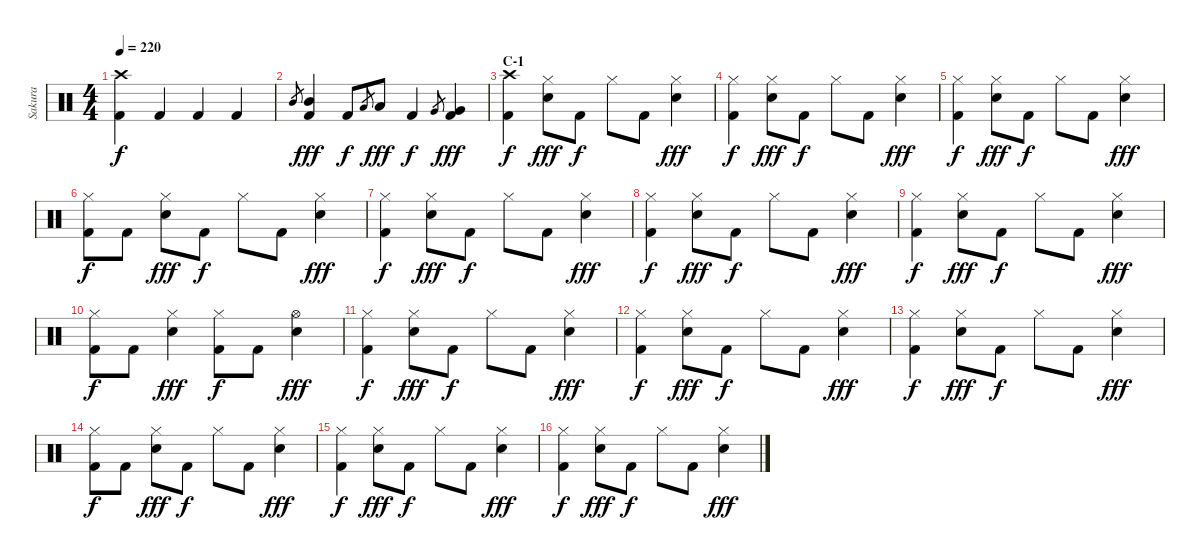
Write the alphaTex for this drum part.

\track ("Sakura" "Sakura") {instrument percussion}
\staff {score}
\articulation defaults
\ts (4 4)
\tempo 220
\clef neutral
\ks c
("Crash high (hit)" "Kick (hit) 2").4{dy f} "Kick (hit) 2".4 "Kick (hit) 2".4 "Kick (hit) 2".4 |
"Mid Tom (hit)".8{gr} ("Mid Tom (hit)" "Kick (hit) 2").4{dy fff} "Kick (hit) 2".8{dy f} "Low Tom (hit)".8{gr} "Low Tom (hit)".8{dy fff} "Kick (hit) 2".4{dy f} "Very Low Tom (hit)".8{gr} ("Very Low Tom (hit)" "Kick (hit) 2").4{dy fff} |
\section ("" "C-1")
("Crash high (hit)" "Kick (hit) 2").4{dy f} ("Hi-Hat (closed)" "Electric Snare (hit)").8{dy fff} "Kick (hit) 2".8{dy f} "Hi-Hat (closed)".8 "Kick (hit) 2".8 ("Hi-Hat (closed)" "Electric Snare (hit)").4{dy fff} |
("Hi-Hat (closed)" "Kick (hit) 2").4{dy f} ("Hi-Hat (closed)" "Electric Snare (hit)").8{dy fff} "Kick (hit) 2".8{dy f} "Hi-Hat (closed)".8 "Kick (hit) 2".8 ("Hi-Hat (closed)" "Electric Snare (hit)").4{dy fff} |
("Hi-Hat (closed)" "Kick (hit) 2").4{dy f} ("Hi-Hat (closed)" "Electric Snare (hit)").8{dy fff} "Kick (hit) 2".8{dy f} "Hi-Hat (closed)".8 "Kick (hit) 2".8 ("Hi-Hat (closed)" "Electric Snare (hit)").4{dy fff} |
("Hi-Hat (closed)" "Kick (hit) 2").8{dy f} "Kick (hit) 2".8 ("Hi-Hat (closed)" "Electric Snare (hit)").8{dy fff} "Kick (hit) 2".8{dy f} "Hi-Hat (closed)".8 "Kick (hit) 2".8 ("Hi-Hat (closed)" "Electric Snare (hit)").4{dy fff} |
("Hi-Hat (closed)" "Kick (hit) 2").4{dy f} ("Hi-Hat (closed)" "Electric Snare (hit)").8{dy fff} "Kick (hit) 2".8{dy f} "Hi-Hat (closed)".8 "Kick (hit) 2".8 ("Hi-Hat (closed)" "Electric Snare (hit)").4{dy fff} |
("Hi-Hat (closed)" "Kick (hit) 2").4{dy f} ("Hi-Hat (closed)" "Electric Snare (hit)").8{dy fff} "Kick (hit) 2".8{dy f} "Hi-Hat (closed)".8 "Kick (hit) 2".8 ("Hi-Hat (closed)" "Electric Snare (hit)").4{dy fff} |
("Hi-Hat (closed)" "Kick (hit) 2").4{dy f} ("Hi-Hat (closed)" "Electric Snare (hit)").8{dy fff} "Kick (hit) 2".8{dy f} "Hi-Hat (closed)".8 "Kick (hit) 2".8 ("Hi-Hat (closed)" "Electric Snare (hit)").4{dy fff} |
("Hi-Hat (closed)" "Kick (hit) 2").8{dy f} "Kick (hit) 2".8 ("Hi-Hat (closed)" "Electric Snare (hit)").4{dy fff} ("Hi-Hat (closed)" "Kick (hit) 2").8{dy f} "Kick (hit) 2".8 ("Hi-Hat (open)" "Electric Snare (hit)").4{dy fff} |
("Hi-Hat (closed)" "Kick (hit) 2").4{dy f} ("Hi-Hat (closed)" "Electric Snare (hit)").8{dy fff} "Kick (hit) 2".8{dy f} "Hi-Hat (closed)".8 "Kick (hit) 2".8 ("Hi-Hat (closed)" "Electric Snare (hit)").4{dy fff} |
("Hi-Hat (closed)" "Kick (hit) 2").4{dy f} ("Hi-Hat (closed)" "Electric Snare (hit)").8{dy fff} "Kick (hit) 2".8{dy f} "Hi-Hat (closed)".8 "Kick (hit) 2".8 ("Hi-Hat (closed)" "Electric Snare (hit)").4{dy fff} |
("Hi-Hat (closed)" "Kick (hit) 2").4{dy f} ("Hi-Hat (closed)" "Electric Snare (hit)").8{dy fff} "Kick (hit) 2".8{dy f} "Hi-Hat (closed)".8 "Kick (hit) 2".8 ("Hi-Hat (closed)" "Electric Snare (hit)").4{dy fff} |
("Hi-Hat (closed)" "Kick (hit) 2").8{dy f} "Kick (hit) 2".8 ("Hi-Hat (closed)" "Electric Snare (hit)").8{dy fff} "Kick (hit) 2".8{dy f} "Hi-Hat (closed)".8 "Kick (hit) 2".8 ("Hi-Hat (closed)" "Electric Snare (hit)").4{dy fff} |
("Hi-Hat (closed)" "Kick (hit) 2").4{dy f} ("Hi-Hat (closed)" "Electric Snare (hit)").8{dy fff} "Kick (hit) 2".8{dy f} "Hi-Hat (closed)".8 "Kick (hit) 2".8 ("Hi-Hat (closed)" "Electric Snare (hit)").4{dy fff} |
("Hi-Hat (closed)" "Kick (hit) 2").4{dy f} ("Hi-Hat (closed)" "Electric Snare (hit)").8{dy fff} "Kick (hit) 2".8{dy f} "Hi-Hat (closed)".8 "Kick (hit) 2".8 ("Hi-Hat (closed)" "Electric Snare (hit)").4{dy fff}
